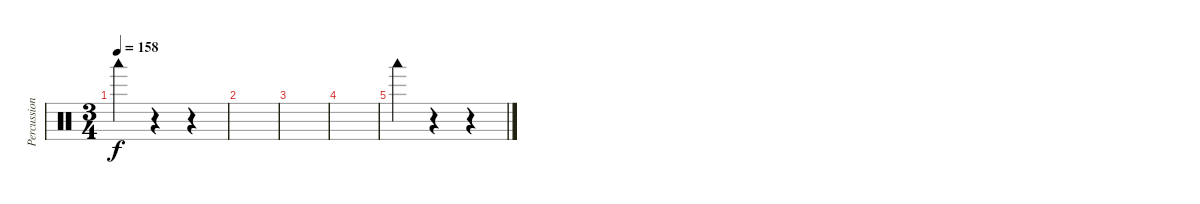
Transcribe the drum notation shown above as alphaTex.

\track ("Percussion" "Percussion") {instrument percussion}
\staff {score}
\articulation defaults
\ts (3 4)
\tempo 158
\clef neutral
\ks c "Woodblock low (hit)".4{dy f}
r.4 r.4 |
|
|
|
"Woodblock low (hit)".4 r.4 r.4
